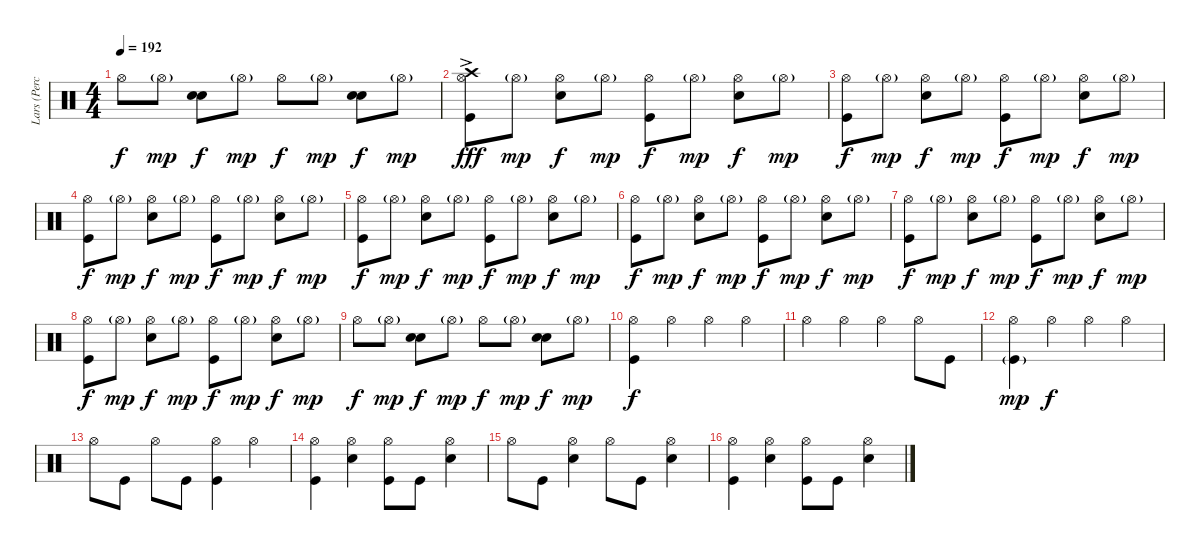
\track ("Lars (Percussion)" "Lars (Perc") {instrument percussion}
\staff {score}
\articulation defaults
\ts (4 4)
\tempo 192
\clef neutral
\ks c "Hi-Hat (open)".8{dy f} "Hi-Hat (open)"{g}.8{dy mp}
("Snare (hit) 2" "Snare (hit) 2").8{bd 480 dy f} "Hi-Hat (open)"{g}.8{dy mp} "Hi-Hat (open)".8{dy f} "Hi-Hat (open)"{g}.8{dy mp} ("Snare (hit) 2" "Snare (hit) 2").8{bd 480 dy f} "Hi-Hat (open)"{g}.8{dy mp} |
("Hi-Hat (open)" "Crash high (hit)" "Kick (hit)"{ac}).8{dy fff} "Hi-Hat (open)"{g}.8{dy mp} ("Hi-Hat (open)" "Snare (hit) 2").8{dy f} "Hi-Hat (open)"{g}.8{dy mp} ("Hi-Hat (open)" "Kick (hit)").8{dy f} "Hi-Hat (open)"{g}.8{dy mp} ("Hi-Hat (open)" "Snare (hit) 2").8{dy f} "Hi-Hat (open)"{g}.8{dy mp} |
("Hi-Hat (open)" "Kick (hit)").8{dy f} "Hi-Hat (open)"{g}.8{dy mp} ("Hi-Hat (open)" "Snare (hit) 2").8{dy f} "Hi-Hat (open)"{g}.8{dy mp} ("Hi-Hat (open)" "Kick (hit)").8{dy f} "Hi-Hat (open)"{g}.8{dy mp} ("Hi-Hat (open)" "Snare (hit) 2").8{dy f} "Hi-Hat (open)"{g}.8{dy mp} |
("Hi-Hat (open)" "Kick (hit)").8{dy f} "Hi-Hat (open)"{g}.8{dy mp} ("Hi-Hat (open)" "Snare (hit) 2").8{dy f} "Hi-Hat (open)"{g}.8{dy mp} ("Hi-Hat (open)" "Kick (hit)").8{dy f} "Hi-Hat (open)"{g}.8{dy mp} ("Hi-Hat (open)" "Snare (hit) 2").8{dy f} "Hi-Hat (open)"{g}.8{dy mp} |
("Hi-Hat (open)" "Kick (hit)").8{dy f} "Hi-Hat (open)"{g}.8{dy mp} ("Hi-Hat (open)" "Snare (hit) 2").8{dy f} "Hi-Hat (open)"{g}.8{dy mp} ("Hi-Hat (open)" "Kick (hit)").8{dy f} "Hi-Hat (open)"{g}.8{dy mp} ("Hi-Hat (open)" "Snare (hit) 2").8{dy f} "Hi-Hat (open)"{g}.8{dy mp} |
("Hi-Hat (open)" "Kick (hit)").8{dy f} "Hi-Hat (open)"{g}.8{dy mp} ("Hi-Hat (open)" "Snare (hit) 2").8{dy f} "Hi-Hat (open)"{g}.8{dy mp} ("Hi-Hat (open)" "Kick (hit)").8{dy f} "Hi-Hat (open)"{g}.8{dy mp} ("Hi-Hat (open)" "Snare (hit) 2").8{dy f} "Hi-Hat (open)"{g}.8{dy mp} |
("Hi-Hat (open)" "Kick (hit)").8{dy f} "Hi-Hat (open)"{g}.8{dy mp} ("Hi-Hat (open)" "Snare (hit) 2").8{dy f} "Hi-Hat (open)"{g}.8{dy mp} ("Hi-Hat (open)" "Kick (hit)").8{dy f} "Hi-Hat (open)"{g}.8{dy mp} ("Hi-Hat (open)" "Snare (hit) 2").8{dy f} "Hi-Hat (open)"{g}.8{dy mp} |
("Hi-Hat (open)" "Kick (hit)").8{dy f} "Hi-Hat (open)"{g}.8{dy mp} ("Hi-Hat (open)" "Snare (hit) 2").8{dy f} "Hi-Hat (open)"{g}.8{dy mp} ("Hi-Hat (open)" "Kick (hit)").8{dy f} "Hi-Hat (open)"{g}.8{dy mp} ("Hi-Hat (open)" "Snare (hit) 2").8{dy f} "Hi-Hat (open)"{g}.8{dy mp} |
"Hi-Hat (open)".8{dy f} "Hi-Hat (open)"{g}.8{dy mp} ("Snare (hit) 2" "Snare (hit) 2").8{bd 480 dy f} "Hi-Hat (open)"{g}.8{dy mp} "Hi-Hat (open)".8{dy f} "Hi-Hat (open)"{g}.8{dy mp} ("Snare (hit) 2" "Snare (hit) 2").8{bd 480 dy f} "Hi-Hat (open)"{g}.8{dy mp} |
("Hi-Hat (open)" "Kick (hit)").4{dy f} "Hi-Hat (open)".4 "Hi-Hat (open)".4 "Hi-Hat (open)".4 |
"Hi-Hat (open)".4 "Hi-Hat (open)".4 "Hi-Hat (open)".4 "Hi-Hat (open)".8 "Kick (hit)".8 |
("Hi-Hat (open)" "Kick (hit)"{g}).4{dy mp} "Hi-Hat (open)".4{dy f} "Hi-Hat (open)".4 "Hi-Hat (open)".4 |
"Hi-Hat (open)".8 "Kick (hit)".8 "Hi-Hat (open)".8 "Kick (hit)".8 ("Hi-Hat (open)" "Kick (hit)").4 "Hi-Hat (open)".4 |
("Hi-Hat (open)" "Kick (hit)").4 ("Hi-Hat (open)" "Snare (hit) 2").4 ("Hi-Hat (open)" "Kick (hit)").8 "Kick (hit)".8 ("Hi-Hat (open)" "Snare (hit) 2").4 |
"Hi-Hat (open)".8 "Kick (hit)".8 ("Hi-Hat (open)" "Snare (hit) 2").4 "Hi-Hat (open)".8 "Kick (hit)".8 ("Hi-Hat (open)" "Snare (hit) 2").4 |
("Hi-Hat (open)" "Kick (hit)").4 ("Hi-Hat (open)" "Snare (hit) 2").4 ("Hi-Hat (open)" "Kick (hit)").8 "Kick (hit)".8 ("Hi-Hat (open)" "Snare (hit) 2").4
